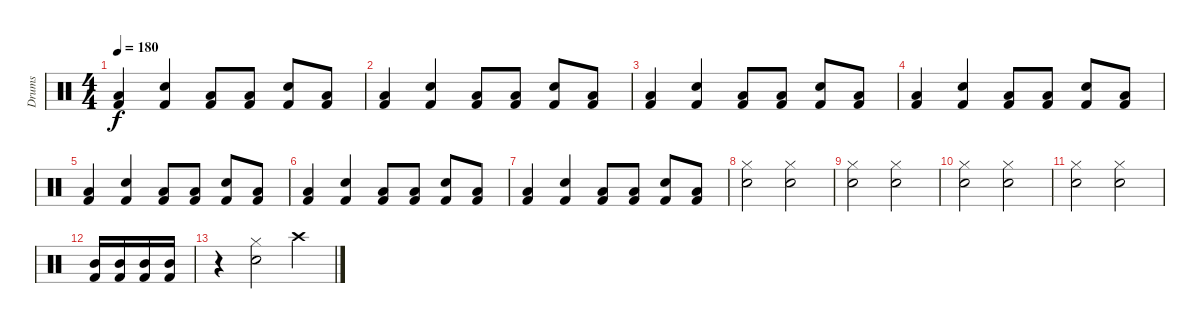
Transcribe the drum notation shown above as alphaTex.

\track ("Drums" "Drums") {instrument percussion}
\staff {score}
\articulation defaults
\ts (4 4)
\tempo 180
\clef neutral
\ks c
("Kick (hit) 2" "Low Tom (hit)").4{dy f} ("Kick (hit) 2" "Electric Snare (hit)").4 ("Kick (hit) 2" "Low Tom (hit)").8 ("Kick (hit) 2" "Low Tom (hit)").8 ("Kick (hit) 2" "Electric Snare (hit)").8 ("Kick (hit) 2" "Low Tom (hit)").8 |
("Kick (hit) 2" "Low Tom (hit)").4 ("Kick (hit) 2" "Electric Snare (hit)").4 ("Kick (hit) 2" "Low Tom (hit)").8 ("Kick (hit) 2" "Low Tom (hit)").8 ("Kick (hit) 2" "Electric Snare (hit)").8 ("Kick (hit) 2" "Low Tom (hit)").8 |
("Kick (hit) 2" "Low Tom (hit)").4 ("Kick (hit) 2" "Electric Snare (hit)").4 ("Kick (hit) 2" "Low Tom (hit)").8 ("Kick (hit) 2" "Low Tom (hit)").8 ("Kick (hit) 2" "Electric Snare (hit)").8 ("Kick (hit) 2" "Low Tom (hit)").8 |
("Kick (hit) 2" "Low Tom (hit)").4 ("Kick (hit) 2" "Electric Snare (hit)").4 ("Kick (hit) 2" "Low Tom (hit)").8 ("Kick (hit) 2" "Low Tom (hit)").8 ("Kick (hit) 2" "Electric Snare (hit)").8 ("Kick (hit) 2" "Low Tom (hit)").8 |
("Kick (hit) 2" "Low Tom (hit)").4 ("Kick (hit) 2" "Electric Snare (hit)").4 ("Kick (hit) 2" "Low Tom (hit)").8 ("Kick (hit) 2" "Low Tom (hit)").8 ("Kick (hit) 2" "Electric Snare (hit)").8 ("Kick (hit) 2" "Low Tom (hit)").8 |
("Kick (hit) 2" "Low Tom (hit)").4 ("Kick (hit) 2" "Electric Snare (hit)").4 ("Kick (hit) 2" "Low Tom (hit)").8 ("Kick (hit) 2" "Low Tom (hit)").8 ("Kick (hit) 2" "Electric Snare (hit)").8 ("Kick (hit) 2" "Low Tom (hit)").8 |
("Kick (hit) 2" "Low Tom (hit)").4 ("Kick (hit) 2" "Electric Snare (hit)").4 ("Kick (hit) 2" "Low Tom (hit)").8 ("Kick (hit) 2" "Low Tom (hit)").8 ("Kick (hit) 2" "Electric Snare (hit)").8 ("Kick (hit) 2" "Low Tom (hit)").8 |
("Snare (hit) 2" "Hi-Hat (closed)").2 ("Snare (hit) 2" "Hi-Hat (closed)").2 |
("Snare (hit) 2" "Hi-Hat (closed)").2 ("Snare (hit) 2" "Hi-Hat (closed)").2 |
("Snare (hit) 2" "Hi-Hat (closed)").2 ("Snare (hit) 2" "Hi-Hat (closed)").2 |
("Snare (hit) 2" "Hi-Hat (closed)").2 ("Snare (hit) 2" "Hi-Hat (closed)").2 |
("Kick (hit) 2" "Mid Tom (hit)").16 ("Kick (hit) 2" "Mid Tom (hit)").16 ("Kick (hit) 2" "Mid Tom (hit)").16 ("Kick (hit) 2" "Mid Tom (hit)").16 |
r.4 ("Hi-Hat (closed)" "Electric Snare (hit)").2 "Crash high (hit)".4
